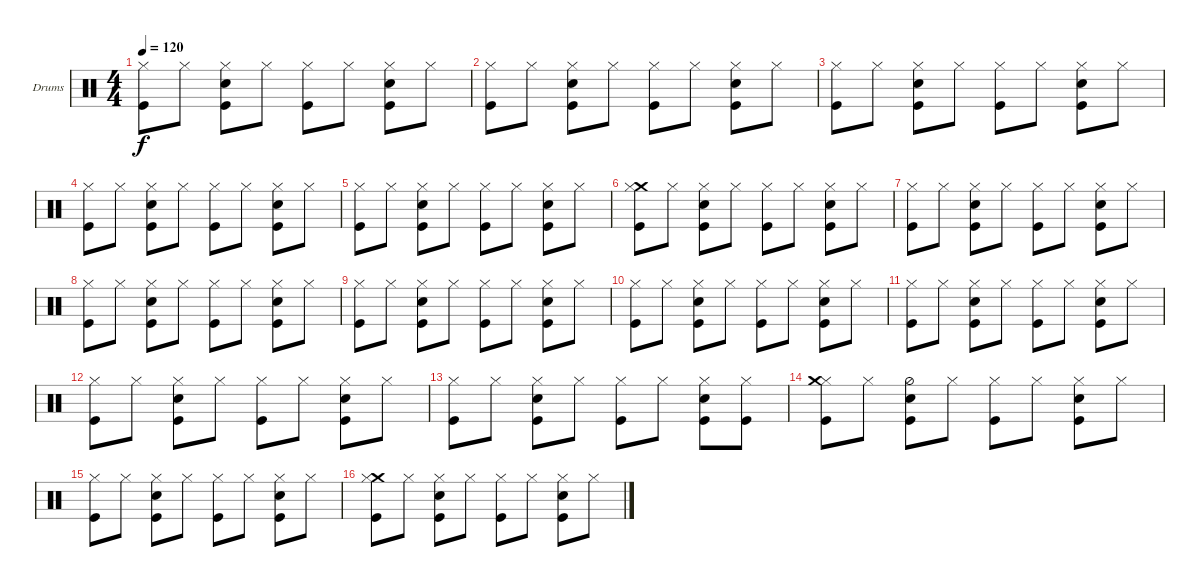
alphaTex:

\bracketExtendMode nobrackets
\firstSystemTrackNameOrientation horizontal
\otherSystemsTrackNameOrientation horizontal
\track ("Drumkit" "Drums") {instrument percussion}
\staff {score}
\articulation defaults
\ts (4 4)
\tempo 120
\clef neutral
\ks c
("Kick (hit)" "Hi-Hat (closed)").8{dy f} "Hi-Hat (closed)".8 ("Kick (hit)" "Snare (hit) 2" "Hi-Hat (closed)").8 "Hi-Hat (closed)".8 ("Kick (hit)" "Hi-Hat (closed)").8 "Hi-Hat (closed)".8 ("Kick (hit)" "Snare (hit) 2" "Hi-Hat (closed)").8 "Hi-Hat (closed)".8 |
("Kick (hit)" "Hi-Hat (closed)").8 "Hi-Hat (closed)".8 ("Kick (hit)" "Snare (hit) 2" "Hi-Hat (closed)").8 "Hi-Hat (closed)".8 ("Kick (hit)" "Hi-Hat (closed)").8 "Hi-Hat (closed)".8 ("Kick (hit)" "Snare (hit) 2" "Hi-Hat (closed)").8 "Hi-Hat (closed)".8 |
("Kick (hit)" "Hi-Hat (closed)").8 "Hi-Hat (closed)".8 ("Kick (hit)" "Snare (hit) 2" "Hi-Hat (closed)").8 "Hi-Hat (closed)".8 ("Kick (hit)" "Hi-Hat (closed)").8 "Hi-Hat (closed)".8 ("Kick (hit)" "Snare (hit) 2" "Hi-Hat (closed)").8 "Hi-Hat (closed)".8 |
("Hi-Hat (closed)" "Kick (hit)").8 "Hi-Hat (closed)".8 ("Kick (hit)" "Snare (hit) 2" "Hi-Hat (closed)").8 "Hi-Hat (closed)".8 ("Kick (hit)" "Hi-Hat (closed)").8 "Hi-Hat (closed)".8 ("Kick (hit)" "Snare (hit) 2" "Hi-Hat (closed)").8 "Hi-Hat (closed)".8 |
("Kick (hit)" "Hi-Hat (closed)").8 "Hi-Hat (closed)".8 ("Kick (hit)" "Snare (hit) 2" "Hi-Hat (closed)").8 "Hi-Hat (closed)".8 ("Kick (hit)" "Hi-Hat (closed)").8 "Hi-Hat (closed)".8 ("Kick (hit)" "Snare (hit) 2" "Hi-Hat (closed)").8 "Hi-Hat (closed)".8 |
("Kick (hit)" "Crash medium (hit)" "Hi-Hat (closed)").8 "Hi-Hat (closed)".8 ("Kick (hit)" "Snare (hit) 2" "Hi-Hat (closed)").8 "Hi-Hat (closed)".8 ("Kick (hit)" "Hi-Hat (closed)").8 "Hi-Hat (closed)".8 ("Kick (hit)" "Snare (hit) 2" "Hi-Hat (closed)").8 "Hi-Hat (closed)".8 |
("Kick (hit)" "Hi-Hat (closed)").8 "Hi-Hat (closed)".8 ("Kick (hit)" "Snare (hit) 2" "Hi-Hat (closed)").8 "Hi-Hat (closed)".8 ("Kick (hit)" "Hi-Hat (closed)").8 "Hi-Hat (closed)".8 ("Kick (hit)" "Snare (hit) 2" "Hi-Hat (closed)").8 "Hi-Hat (closed)".8 |
("Kick (hit)" "Hi-Hat (closed)").8 "Hi-Hat (closed)".8 ("Kick (hit)" "Snare (hit) 2" "Hi-Hat (closed)").8 "Hi-Hat (closed)".8 ("Kick (hit)" "Hi-Hat (closed)").8 "Hi-Hat (closed)".8 ("Kick (hit)" "Snare (hit) 2" "Hi-Hat (closed)").8 "Hi-Hat (closed)".8 |
("Kick (hit)" "Hi-Hat (closed)").8 "Hi-Hat (closed)".8 ("Kick (hit)" "Snare (hit) 2" "Hi-Hat (closed)").8 "Hi-Hat (closed)".8 ("Kick (hit)" "Hi-Hat (closed)").8 "Hi-Hat (closed)".8 ("Kick (hit)" "Snare (hit) 2" "Hi-Hat (closed)").8 "Hi-Hat (closed)".8 |
("Kick (hit)" "Hi-Hat (closed)").8 "Hi-Hat (closed)".8 ("Kick (hit)" "Snare (hit) 2" "Hi-Hat (closed)").8 "Hi-Hat (closed)".8 ("Kick (hit)" "Hi-Hat (closed)").8 "Hi-Hat (closed)".8 ("Kick (hit)" "Snare (hit) 2" "Hi-Hat (closed)").8 "Hi-Hat (closed)".8 |
("Kick (hit)" "Hi-Hat (closed)").8 "Hi-Hat (closed)".8 ("Kick (hit)" "Snare (hit) 2" "Hi-Hat (closed)").8 "Hi-Hat (closed)".8 ("Kick (hit)" "Hi-Hat (closed)").8 "Hi-Hat (closed)".8 ("Kick (hit)" "Snare (hit) 2" "Hi-Hat (closed)").8 "Hi-Hat (closed)".8 |
("Kick (hit)" "Hi-Hat (closed)").8 "Hi-Hat (closed)".8 ("Kick (hit)" "Snare (hit) 2" "Hi-Hat (closed)").8 "Hi-Hat (closed)".8 ("Kick (hit)" "Hi-Hat (closed)").8 "Hi-Hat (closed)".8 ("Kick (hit)" "Snare (hit) 2" "Hi-Hat (closed)").8 "Hi-Hat (closed)".8 |
("Kick (hit)" "Hi-Hat (closed)").8 "Hi-Hat (closed)".8 ("Kick (hit)" "Snare (hit) 2" "Hi-Hat (closed)").8 "Hi-Hat (closed)".8 ("Kick (hit)" "Hi-Hat (closed)").8 "Hi-Hat (closed)".8 ("Kick (hit)" "Snare (hit) 2" "Hi-Hat (closed)").8 ("Hi-Hat (closed)" "Kick (hit)").8 |
("Kick (hit)" "Hi-Hat (closed)" "Crash medium (hit)").8 "Hi-Hat (closed)".8 ("Kick (hit)" "Hi-Hat (half)" "Snare (hit) 2").8 "Hi-Hat (closed)".8 ("Kick (hit)" "Hi-Hat (closed)").8 "Hi-Hat (closed)".8 ("Kick (hit)" "Snare (hit) 2" "Hi-Hat (closed)").8 "Hi-Hat (closed)".8 |
("Kick (hit)" "Hi-Hat (closed)").8 "Hi-Hat (closed)".8 ("Kick (hit)" "Snare (hit) 2" "Hi-Hat (closed)").8 "Hi-Hat (closed)".8 ("Kick (hit)" "Hi-Hat (closed)").8 "Hi-Hat (closed)".8 ("Kick (hit)" "Snare (hit) 2" "Hi-Hat (closed)").8 "Hi-Hat (closed)".8 |
("Kick (hit)" "Crash medium (hit)" "Hi-Hat (closed)").8 "Hi-Hat (closed)".8 ("Kick (hit)" "Snare (hit) 2" "Hi-Hat (closed)").8 "Hi-Hat (closed)".8 ("Kick (hit)" "Hi-Hat (closed)").8 "Hi-Hat (closed)".8 ("Kick (hit)" "Snare (hit) 2" "Hi-Hat (closed)").8 "Hi-Hat (closed)".8
